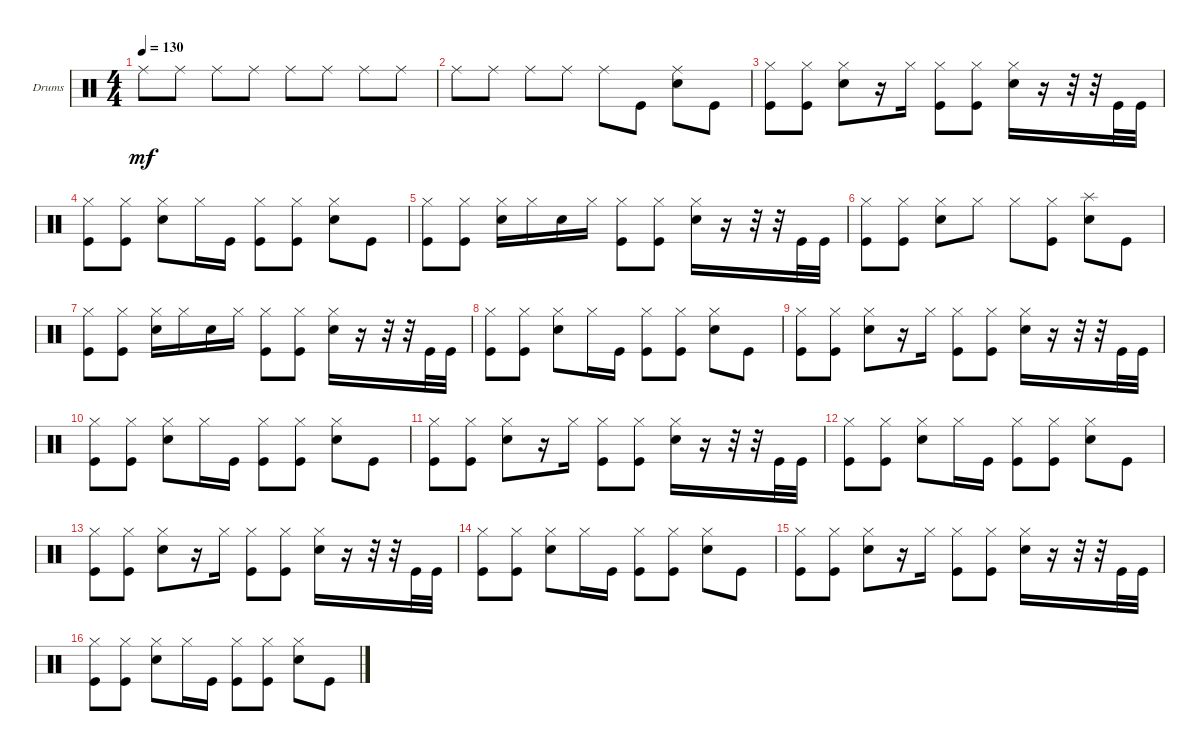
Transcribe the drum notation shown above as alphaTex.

\defaultSystemsLayout 4
\bracketExtendMode groupsimilarinstruments
\firstSystemTrackNameOrientation horizontal
\otherSystemsTrackNameOrientation horizontal
\track ("Drumkit" "Drums") {instrument percussion}
\staff {score}
\articulation defaults
\ts (4 4)
\tempo 130
\clef neutral
\ks c "Ride (middle)".8{dy mf} "Ride (middle)".8 "Ride (middle)".8 "Ride (middle)".8 "Ride (middle)".8 "Ride (middle)".8 "Ride (middle)".8 "Ride (middle)".8
|
"Ride (middle)".8 "Ride (middle)".8 "Ride (middle)".8 "Ride (middle)".8 "Ride (middle)".8 "Kick (hit)".8 ("Snare (hit) 2" "Ride (middle)").8 "Kick (hit)".8 |
("Kick (hit)" "Hi-Hat (closed)").8 ("Hi-Hat (closed)" "Kick (hit)").8 ("Snare (hit) 2" "Hi-Hat (closed)").8 r.16 "Hi-Hat (closed)".16 ("Kick (hit)" "Hi-Hat (closed)").8 ("Kick (hit)" "Hi-Hat (closed)").8 ("Snare (hit) 2" "Hi-Hat (closed)").16 r.16 r.32 r.32 "Kick (hit)".32 "Kick (hit)".32 |
("Kick (hit)" "Hi-Hat (closed)").8 ("Kick (hit)" "Hi-Hat (closed)").8 ("Snare (hit) 2" "Hi-Hat (closed)").8 "Hi-Hat (closed)".16 "Kick (hit)".16 ("Kick (hit)" "Hi-Hat (closed)").8 ("Kick (hit)" "Hi-Hat (closed)").8 ("Snare (hit) 2" "Hi-Hat (closed)").8 "Kick (hit)".8 |
("Kick (hit)" "Hi-Hat (closed)").8 ("Hi-Hat (closed)" "Kick (hit)").8 ("Snare (hit) 2" "Hi-Hat (closed)").16 "Hi-Hat (closed)".16 "Snare (hit) 2".16 "Hi-Hat (closed)".16 ("Kick (hit)" "Hi-Hat (closed)").8 ("Kick (hit)" "Hi-Hat (closed)").8 ("Snare (hit) 2" "Hi-Hat (closed)").16 r.16 r.32 r.32 "Kick (hit)".32 "Kick (hit)".32 |
("Kick (hit)" "Hi-Hat (closed)").8 ("Kick (hit)" "Hi-Hat (closed)").8 ("Snare (hit) 2" "Hi-Hat (closed)").8 "Hi-Hat (closed)".8 "Hi-Hat (closed)".8 ("Kick (hit)" "Hi-Hat (closed)").8 ("Snare (hit) 2" "Splash (hit)").8 "Kick (hit)".8 |
("Kick (hit)" "Hi-Hat (closed)").8 ("Hi-Hat (closed)" "Kick (hit)").8 ("Snare (hit) 2" "Hi-Hat (closed)").16 "Hi-Hat (closed)".16 "Snare (hit) 2".16 "Hi-Hat (closed)".16 ("Kick (hit)" "Hi-Hat (closed)").8 ("Kick (hit)" "Hi-Hat (closed)").8 ("Snare (hit) 2" "Hi-Hat (closed)").16 r.16 r.32 r.32 "Kick (hit)".32 "Kick (hit)".32 |
("Kick (hit)" "Hi-Hat (closed)").8 ("Kick (hit)" "Hi-Hat (closed)").8 ("Snare (hit) 2" "Hi-Hat (closed)").8 "Hi-Hat (closed)".16 "Kick (hit)".16 ("Kick (hit)" "Hi-Hat (closed)").8 ("Kick (hit)" "Hi-Hat (closed)").8 ("Snare (hit) 2" "Hi-Hat (closed)").8 "Kick (hit)".8 |
("Kick (hit)" "Hi-Hat (closed)").8 ("Hi-Hat (closed)" "Kick (hit)").8 ("Snare (hit) 2" "Hi-Hat (closed)").8 r.16 "Hi-Hat (closed)".16 ("Kick (hit)" "Hi-Hat (closed)").8 ("Kick (hit)" "Hi-Hat (closed)").8 ("Snare (hit) 2" "Hi-Hat (closed)").16 r.16 r.32 r.32 "Kick (hit)".32 "Kick (hit)".32 |
("Kick (hit)" "Hi-Hat (closed)").8 ("Kick (hit)" "Hi-Hat (closed)").8 ("Snare (hit) 2" "Hi-Hat (closed)").8 "Hi-Hat (closed)".16 "Kick (hit)".16 ("Kick (hit)" "Hi-Hat (closed)").8 ("Kick (hit)" "Hi-Hat (closed)").8 ("Snare (hit) 2" "Hi-Hat (closed)").8 "Kick (hit)".8 |
("Kick (hit)" "Hi-Hat (closed)").8 ("Hi-Hat (closed)" "Kick (hit)").8 ("Snare (hit) 2" "Hi-Hat (closed)").8 r.16 "Hi-Hat (closed)".16 ("Kick (hit)" "Hi-Hat (closed)").8 ("Kick (hit)" "Hi-Hat (closed)").8 ("Snare (hit) 2" "Hi-Hat (closed)").16 r.16 r.32 r.32 "Kick (hit)".32 "Kick (hit)".32 |
("Kick (hit)" "Hi-Hat (closed)").8 ("Kick (hit)" "Hi-Hat (closed)").8 ("Snare (hit) 2" "Hi-Hat (closed)").8 "Hi-Hat (closed)".16 "Kick (hit)".16 ("Kick (hit)" "Hi-Hat (closed)").8 ("Kick (hit)" "Hi-Hat (closed)").8 ("Snare (hit) 2" "Hi-Hat (closed)").8 "Kick (hit)".8 |
("Kick (hit)" "Hi-Hat (closed)").8 ("Hi-Hat (closed)" "Kick (hit)").8 ("Snare (hit) 2" "Hi-Hat (closed)").8 r.16 "Hi-Hat (closed)".16 ("Kick (hit)" "Hi-Hat (closed)").8 ("Kick (hit)" "Hi-Hat (closed)").8 ("Snare (hit) 2" "Hi-Hat (closed)").16 r.16 r.32 r.32 "Kick (hit)".32 "Kick (hit)".32 |
("Kick (hit)" "Hi-Hat (closed)").8 ("Kick (hit)" "Hi-Hat (closed)").8 ("Snare (hit) 2" "Hi-Hat (closed)").8 "Hi-Hat (closed)".16 "Kick (hit)".16 ("Kick (hit)" "Hi-Hat (closed)").8 ("Kick (hit)" "Hi-Hat (closed)").8 ("Snare (hit) 2" "Hi-Hat (closed)").8 "Kick (hit)".8 |
("Kick (hit)" "Hi-Hat (closed)").8 ("Hi-Hat (closed)" "Kick (hit)").8 ("Snare (hit) 2" "Hi-Hat (closed)").8 r.16 "Hi-Hat (closed)".16 ("Kick (hit)" "Hi-Hat (closed)").8 ("Kick (hit)" "Hi-Hat (closed)").8 ("Snare (hit) 2" "Hi-Hat (closed)").16 r.16 r.32 r.32 "Kick (hit)".32 "Kick (hit)".32 |
("Kick (hit)" "Hi-Hat (closed)").8 ("Kick (hit)" "Hi-Hat (closed)").8 ("Snare (hit) 2" "Hi-Hat (closed)").8 "Hi-Hat (closed)".16 "Kick (hit)".16 ("Kick (hit)" "Hi-Hat (closed)").8 ("Kick (hit)" "Hi-Hat (closed)").8 ("Snare (hit) 2" "Hi-Hat (closed)").8 "Kick (hit)".8
